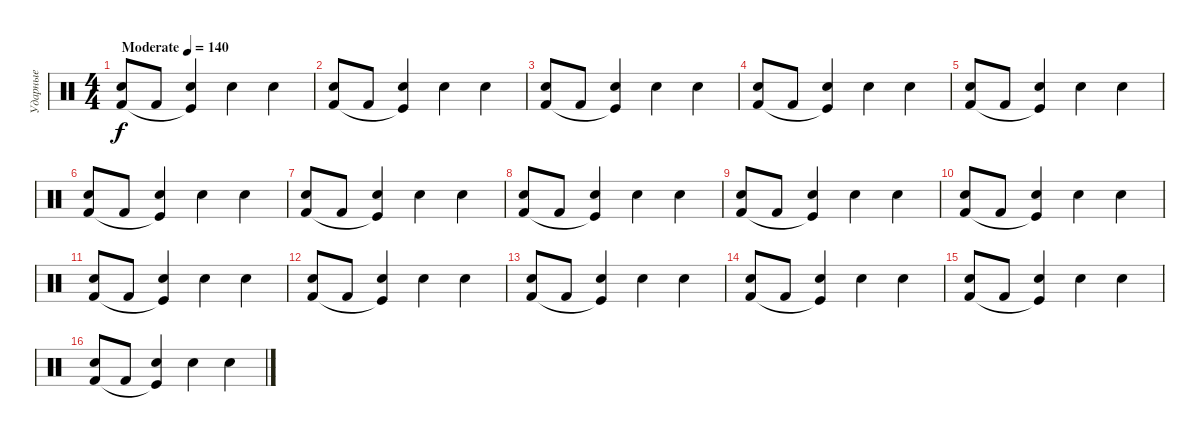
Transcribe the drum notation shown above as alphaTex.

\track ("Ударные" "Ударные") {instrument percussion}
\staff {score}
\articulation defaults
\ts (4 4)
\tempo (140 "Moderate")
\clef neutral
\ks c
("Electric Snare (hit)" "Kick (hit) 2").8{dy f} "Kick (hit) 2".8 ("Electric Snare (hit)" "Kick (hit)"{t}).4 "Electric Snare (hit)".4 "Electric Snare (hit)".4 |
("Electric Snare (hit)" "Kick (hit) 2").8 "Kick (hit) 2".8 ("Electric Snare (hit)" "Kick (hit)"{t}).4 "Electric Snare (hit)".4 "Electric Snare (hit)".4 |
("Electric Snare (hit)" "Kick (hit) 2").8 "Kick (hit) 2".8 ("Electric Snare (hit)" "Kick (hit)"{t}).4 "Electric Snare (hit)".4 "Electric Snare (hit)".4 |
("Electric Snare (hit)" "Kick (hit) 2").8 "Kick (hit) 2".8 ("Electric Snare (hit)" "Kick (hit)"{t}).4 "Electric Snare (hit)".4 "Electric Snare (hit)".4 |
("Electric Snare (hit)" "Kick (hit) 2").8 "Kick (hit) 2".8 ("Electric Snare (hit)" "Kick (hit)"{t}).4 "Electric Snare (hit)".4 "Electric Snare (hit)".4 |
("Electric Snare (hit)" "Kick (hit) 2").8 "Kick (hit) 2".8 ("Electric Snare (hit)" "Kick (hit)"{t}).4 "Electric Snare (hit)".4 "Electric Snare (hit)".4 |
("Electric Snare (hit)" "Kick (hit) 2").8 "Kick (hit) 2".8 ("Electric Snare (hit)" "Kick (hit)"{t}).4 "Electric Snare (hit)".4 "Electric Snare (hit)".4 |
("Electric Snare (hit)" "Kick (hit) 2").8 "Kick (hit) 2".8 ("Electric Snare (hit)" "Kick (hit)"{t}).4 "Electric Snare (hit)".4 "Electric Snare (hit)".4 |
("Electric Snare (hit)" "Kick (hit) 2").8 "Kick (hit) 2".8 ("Electric Snare (hit)" "Kick (hit)"{t}).4 "Electric Snare (hit)".4 "Electric Snare (hit)".4 |
("Electric Snare (hit)" "Kick (hit) 2").8 "Kick (hit) 2".8 ("Electric Snare (hit)" "Kick (hit)"{t}).4 "Electric Snare (hit)".4 "Electric Snare (hit)".4 |
("Electric Snare (hit)" "Kick (hit) 2").8 "Kick (hit) 2".8 ("Electric Snare (hit)" "Kick (hit)"{t}).4 "Electric Snare (hit)".4 "Electric Snare (hit)".4 |
("Electric Snare (hit)" "Kick (hit) 2").8 "Kick (hit) 2".8 ("Electric Snare (hit)" "Kick (hit)"{t}).4 "Electric Snare (hit)".4 "Electric Snare (hit)".4 |
("Electric Snare (hit)" "Kick (hit) 2").8 "Kick (hit) 2".8 ("Electric Snare (hit)" "Kick (hit)"{t}).4 "Electric Snare (hit)".4 "Electric Snare (hit)".4 |
("Electric Snare (hit)" "Kick (hit) 2").8 "Kick (hit) 2".8 ("Electric Snare (hit)" "Kick (hit)"{t}).4 "Electric Snare (hit)".4 "Electric Snare (hit)".4 |
("Electric Snare (hit)" "Kick (hit) 2").8 "Kick (hit) 2".8 ("Electric Snare (hit)" "Kick (hit)"{t}).4 "Electric Snare (hit)".4 "Electric Snare (hit)".4 |
("Electric Snare (hit)" "Kick (hit) 2").8 "Kick (hit) 2".8 ("Electric Snare (hit)" "Kick (hit)"{t}).4 "Electric Snare (hit)".4 "Electric Snare (hit)".4
